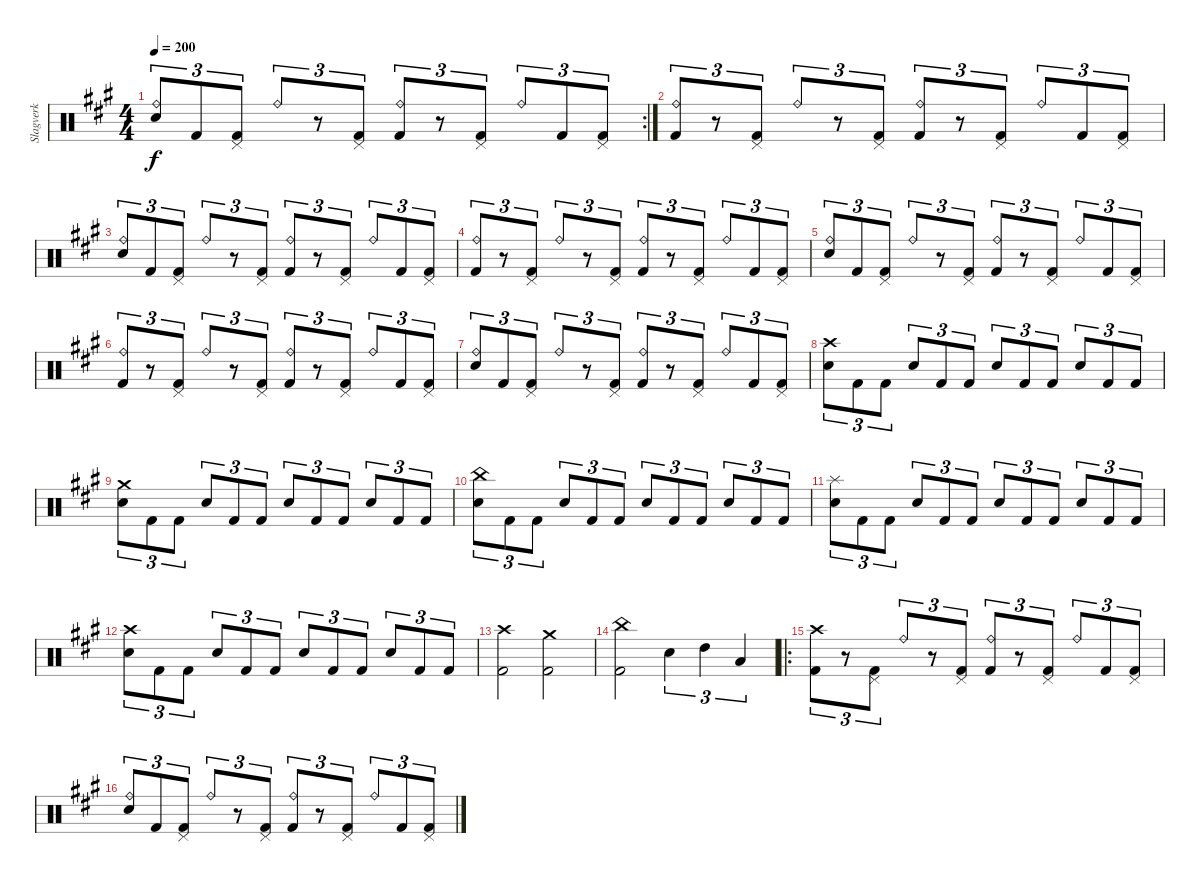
\track ("Slagverk" "Slagverk") {instrument percussion}
\staff {score}
\articulation defaults
\rc 2
\ts (4 4)
\tempo 200
\clef neutral
\ks a
("Ride (bell)" "Snare (hit) 2").8{tu (3 2) dy f} "Kick (hit) 2".8{tu (3 2)} ("Pedal Hi-Hat (hit)" "Kick (hit) 2").8{tu (3 2)} "Ride (bell)".8{tu (3 2)} r.8{tu (3 2)} ("Pedal Hi-Hat (hit)" "Kick (hit) 2").8{tu (3 2)} ("Ride (bell)" "Kick (hit) 2").8{tu (3 2)} r.8{tu (3 2)} ("Pedal Hi-Hat (hit)" "Kick (hit) 2").8{tu (3 2)} "Ride (bell)".8{tu (3 2)} "Kick (hit) 2".8{tu (3 2)} ("Pedal Hi-Hat (hit)" "Kick (hit) 2").8{tu (3 2)} |
("Ride (bell)" "Kick (hit) 2").8{tu (3 2)} r.8{tu (3 2)} ("Pedal Hi-Hat (hit)" "Kick (hit) 2").8{tu (3 2)} "Ride (bell)".8{tu (3 2)} r.8{tu (3 2)} ("Pedal Hi-Hat (hit)" "Kick (hit) 2").8{tu (3 2)} ("Ride (bell)" "Kick (hit) 2").8{tu (3 2)} r.8{tu (3 2)} ("Pedal Hi-Hat (hit)" "Kick (hit) 2").8{tu (3 2)} "Ride (bell)".8{tu (3 2)} "Kick (hit) 2".8{tu (3 2)} ("Pedal Hi-Hat (hit)" "Kick (hit) 2").8{tu (3 2)} |
("Ride (bell)" "Snare (hit) 2").8{tu (3 2)} "Kick (hit) 2".8{tu (3 2)} ("Pedal Hi-Hat (hit)" "Kick (hit) 2").8{tu (3 2)} "Ride (bell)".8{tu (3 2)} r.8{tu (3 2)} ("Pedal Hi-Hat (hit)" "Kick (hit) 2").8{tu (3 2)} ("Ride (bell)" "Kick (hit) 2").8{tu (3 2)} r.8{tu (3 2)} ("Pedal Hi-Hat (hit)" "Kick (hit) 2").8{tu (3 2)} "Ride (bell)".8{tu (3 2)} "Kick (hit) 2".8{tu (3 2)} ("Pedal Hi-Hat (hit)" "Kick (hit) 2").8{tu (3 2)} |
("Ride (bell)" "Kick (hit) 2").8{tu (3 2)} r.8{tu (3 2)} ("Pedal Hi-Hat (hit)" "Kick (hit) 2").8{tu (3 2)} "Ride (bell)".8{tu (3 2)} r.8{tu (3 2)} ("Pedal Hi-Hat (hit)" "Kick (hit) 2").8{tu (3 2)} ("Ride (bell)" "Kick (hit) 2").8{tu (3 2)} r.8{tu (3 2)} ("Pedal Hi-Hat (hit)" "Kick (hit) 2").8{tu (3 2)} "Ride (bell)".8{tu (3 2)} "Kick (hit) 2".8{tu (3 2)} ("Pedal Hi-Hat (hit)" "Kick (hit) 2").8{tu (3 2)} |
("Ride (bell)" "Snare (hit) 2").8{tu (3 2)} "Kick (hit) 2".8{tu (3 2)} ("Pedal Hi-Hat (hit)" "Kick (hit) 2").8{tu (3 2)} "Ride (bell)".8{tu (3 2)} r.8{tu (3 2)} ("Pedal Hi-Hat (hit)" "Kick (hit) 2").8{tu (3 2)} ("Ride (bell)" "Kick (hit) 2").8{tu (3 2)} r.8{tu (3 2)} ("Pedal Hi-Hat (hit)" "Kick (hit) 2").8{tu (3 2)} "Ride (bell)".8{tu (3 2)} "Kick (hit) 2".8{tu (3 2)} ("Pedal Hi-Hat (hit)" "Kick (hit) 2").8{tu (3 2)} |
("Ride (bell)" "Kick (hit) 2").8{tu (3 2)} r.8{tu (3 2)} ("Pedal Hi-Hat (hit)" "Kick (hit) 2").8{tu (3 2)} "Ride (bell)".8{tu (3 2)} r.8{tu (3 2)} ("Pedal Hi-Hat (hit)" "Kick (hit) 2").8{tu (3 2)} ("Ride (bell)" "Kick (hit) 2").8{tu (3 2)} r.8{tu (3 2)} ("Pedal Hi-Hat (hit)" "Kick (hit) 2").8{tu (3 2)} "Ride (bell)".8{tu (3 2)} "Kick (hit) 2".8{tu (3 2)} ("Pedal Hi-Hat (hit)" "Kick (hit) 2").8{tu (3 2)} |
("Ride (bell)" "Snare (hit) 2").8{tu (3 2)} "Kick (hit) 2".8{tu (3 2)} ("Pedal Hi-Hat (hit)" "Kick (hit) 2").8{tu (3 2)} "Ride (bell)".8{tu (3 2)} r.8{tu (3 2)} ("Pedal Hi-Hat (hit)" "Kick (hit) 2").8{tu (3 2)} ("Ride (bell)" "Kick (hit) 2").8{tu (3 2)} r.8{tu (3 2)} ("Pedal Hi-Hat (hit)" "Kick (hit) 2").8{tu (3 2)} "Ride (bell)".8{tu (3 2)} "Kick (hit) 2".8{tu (3 2)} ("Pedal Hi-Hat (hit)" "Kick (hit) 2").8{tu (3 2)} |
("Crash high (hit)" "Snare (hit) 2").8{tu (3 2)} "Kick (hit) 2".8{tu (3 2)} "Kick (hit) 2".8{tu (3 2)} "Snare (hit) 2".8{tu (3 2)} "Kick (hit) 2".8{tu (3 2)} "Kick (hit) 2".8{tu (3 2)} "Snare (hit) 2".8{tu (3 2)} "Kick (hit) 2".8{tu (3 2)} "Kick (hit) 2".8{tu (3 2)} "Snare (hit) 2".8{tu (3 2)} "Kick (hit) 2".8{tu (3 2)} "Kick (hit) 2".8{tu (3 2)} |
("Crash medium (hit)" "Snare (hit) 2").8{tu (3 2)} "Kick (hit) 2".8{tu (3 2)} "Kick (hit) 2".8{tu (3 2)} "Snare (hit) 2".8{tu (3 2)} "Kick (hit) 2".8{tu (3 2)} "Kick (hit) 2".8{tu (3 2)} "Snare (hit) 2".8{tu (3 2)} "Kick (hit) 2".8{tu (3 2)} "Kick (hit) 2".8{tu (3 2)} "Snare (hit) 2".8{tu (3 2)} "Kick (hit) 2".8{tu (3 2)} "Kick (hit) 2".8{tu (3 2)} |
("China (hit)" "Snare (hit) 2").8{tu (3 2)} "Kick (hit) 2".8{tu (3 2)} "Kick (hit) 2".8{tu (3 2)} "Snare (hit) 2".8{tu (3 2)} "Kick (hit) 2".8{tu (3 2)} "Kick (hit) 2".8{tu (3 2)} "Snare (hit) 2".8{tu (3 2)} "Kick (hit) 2".8{tu (3 2)} "Kick (hit) 2".8{tu (3 2)} "Snare (hit) 2".8{tu (3 2)} "Kick (hit) 2".8{tu (3 2)} "Kick (hit) 2".8{tu (3 2)} |
("Splash (hit)" "Snare (hit) 2").8{tu (3 2)} "Kick (hit) 2".8{tu (3 2)} "Kick (hit) 2".8{tu (3 2)} "Snare (hit) 2".8{tu (3 2)} "Kick (hit) 2".8{tu (3 2)} "Kick (hit) 2".8{tu (3 2)} "Snare (hit) 2".8{tu (3 2)} "Kick (hit) 2".8{tu (3 2)} "Kick (hit) 2".8{tu (3 2)} "Snare (hit) 2".8{tu (3 2)} "Kick (hit) 2".8{tu (3 2)} "Kick (hit) 2".8{tu (3 2)} |
("Crash high (hit)" "Snare (hit) 2").8{tu (3 2)} "Kick (hit) 2".8{tu (3 2)} "Kick (hit) 2".8{tu (3 2)} "Snare (hit) 2".8{tu (3 2)} "Kick (hit) 2".8{tu (3 2)} "Kick (hit) 2".8{tu (3 2)} "Snare (hit) 2".8{tu (3 2)} "Kick (hit) 2".8{tu (3 2)} "Kick (hit) 2".8{tu (3 2)} "Snare (hit) 2".8{tu (3 2)} "Kick (hit) 2".8{tu (3 2)} "Kick (hit) 2".8{tu (3 2)} |
("Crash high (hit)" "Kick (hit) 2").2 ("Crash medium (hit)" "Kick (hit) 2").2 |
("China (hit)" "Kick (hit) 2").2 "Snare (hit) 2".4{tu (3 2)} "High Tom (hit)".4{tu (3 2)} "Low Tom (hit)".4{tu (3 2)} |
\ro
("Crash high (hit)" "Kick (hit) 2").8{tu (3 2)} r.8{tu (3 2)} ("Pedal Hi-Hat (hit)" "Kick (hit) 2").8{tu (3 2)} "Ride (bell)".8{tu (3 2)} r.8{tu (3 2)} ("Pedal Hi-Hat (hit)" "Kick (hit) 2").8{tu (3 2)} ("Ride (bell)" "Kick (hit) 2").8{tu (3 2)} r.8{tu (3 2)} ("Pedal Hi-Hat (hit)" "Kick (hit) 2").8{tu (3 2)} "Ride (bell)".8{tu (3 2)} "Kick (hit) 2".8{tu (3 2)} ("Pedal Hi-Hat (hit)" "Kick (hit) 2").8{tu (3 2)} |
("Ride (bell)" "Snare (hit) 2").8{tu (3 2)} "Kick (hit) 2".8{tu (3 2)} ("Pedal Hi-Hat (hit)" "Kick (hit) 2").8{tu (3 2)} "Ride (bell)".8{tu (3 2)} r.8{tu (3 2)} ("Pedal Hi-Hat (hit)" "Kick (hit) 2").8{tu (3 2)} ("Ride (bell)" "Kick (hit) 2").8{tu (3 2)} r.8{tu (3 2)} ("Pedal Hi-Hat (hit)" "Kick (hit) 2").8{tu (3 2)} "Ride (bell)".8{tu (3 2)} "Kick (hit) 2".8{tu (3 2)} ("Pedal Hi-Hat (hit)" "Kick (hit) 2").8{tu (3 2)}
